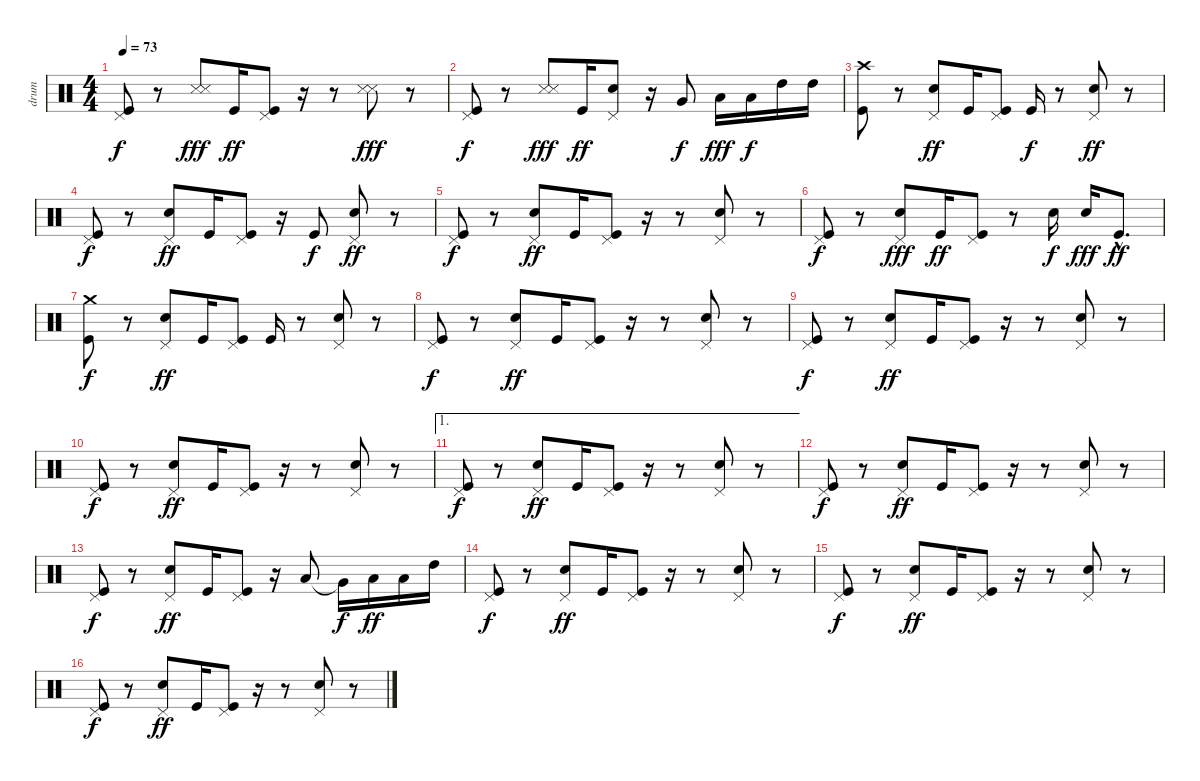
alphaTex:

\track ("drum" "drum") {instrument percussion}
\staff {score}
\articulation defaults
\ts (4 4)
\tempo 73
\clef neutral
\ks c
("Pedal Hi-Hat (hit)" "Kick (hit)").8{dy f} r.8 ("Snare (side stick) 3" "Snare (side stick) 3").8{dy fff} "Kick (hit)".16{dy ff} ("Pedal Hi-Hat (hit)" "Kick (hit)").8 r.16 r.8 ("Snare (side stick) 3" "Snare (side stick) 3").8{dy fff} r.8 |
("Pedal Hi-Hat (hit)" "Kick (hit)").8{dy f} r.8 ("Snare (side stick) 3" "Snare (side stick) 3").8{dy fff} "Kick (hit)".16{dy ff} ("Pedal Hi-Hat (hit)" "Snare (hit) 2").8 r.16 "Very Low Tom (hit)".8{dy f} "Low Tom (hit)".16{dy fff} "Low Tom (hit)".16{dy f} "High Tom (hit)".16 "High Tom (hit)".16 |
("Crash high (hit)" "Kick (hit)").8 r.8 ("Pedal Hi-Hat (hit)" "Snare (hit) 2").8{dy ff} "Kick (hit)".16 ("Pedal Hi-Hat (hit)" "Kick (hit)").8 "Kick (hit)".16{dy f} r.8 ("Pedal Hi-Hat (hit)" "Snare (hit) 2").8{dy ff} r.8 |
("Pedal Hi-Hat (hit)" "Kick (hit)").8{dy f} r.8 ("Pedal Hi-Hat (hit)" "Snare (hit) 2").8{dy ff} "Kick (hit)".16 ("Pedal Hi-Hat (hit)" "Kick (hit)").8 r.16 "Kick (hit)".8{dy f} ("Pedal Hi-Hat (hit)" "Snare (hit) 2").8{dy ff} r.8 |
("Pedal Hi-Hat (hit)" "Kick (hit)").8{dy f} r.8 ("Pedal Hi-Hat (hit)" "Snare (hit) 2").8{dy ff} "Kick (hit)".16 ("Pedal Hi-Hat (hit)" "Kick (hit)").8 r.16 r.8 ("Pedal Hi-Hat (hit)" "Snare (hit) 2").8 r.8 |
("Pedal Hi-Hat (hit)" "Kick (hit)").8{dy f} r.8 ("Pedal Hi-Hat (hit)" "Snare (hit) 2").8{dy fff} "Kick (hit)".16{dy ff} ("Pedal Hi-Hat (hit)" "Kick (hit)").8 r.8 "Snare (hit) 2".16{dy f} "Snare (hit) 2".16{dy fff} "Kick (hit)"{hac}.8{d dy ff} |
("Crash medium (hit)" "Kick (hit)").8{dy f} r.8 ("Pedal Hi-Hat (hit)" "Snare (hit) 2").8{dy ff} "Kick (hit)".16 ("Pedal Hi-Hat (hit)" "Kick (hit)").8 "Kick (hit)".16 r.8 ("Pedal Hi-Hat (hit)" "Snare (hit) 2").8 r.8 |
("Pedal Hi-Hat (hit)" "Kick (hit)").8{dy f} r.8 ("Pedal Hi-Hat (hit)" "Snare (hit) 2").8{dy ff} "Kick (hit)".16 ("Pedal Hi-Hat (hit)" "Kick (hit)").8 r.16 r.8 ("Pedal Hi-Hat (hit)" "Snare (hit) 2").8 r.8 |
("Pedal Hi-Hat (hit)" "Kick (hit)").8{dy f} r.8 ("Pedal Hi-Hat (hit)" "Snare (hit) 2").8{dy ff} "Kick (hit)".16 ("Pedal Hi-Hat (hit)" "Kick (hit)").8 r.16 r.8 ("Pedal Hi-Hat (hit)" "Snare (hit) 2").8 r.8 |
("Pedal Hi-Hat (hit)" "Kick (hit)").8{dy f} r.8 ("Pedal Hi-Hat (hit)" "Snare (hit) 2").8{dy ff} "Kick (hit)".16 ("Pedal Hi-Hat (hit)" "Kick (hit)").8 r.16 r.8 ("Pedal Hi-Hat (hit)" "Snare (hit) 2").8 r.8 |
\ae 1
("Pedal Hi-Hat (hit)" "Kick (hit)").8{dy f} r.8 ("Pedal Hi-Hat (hit)" "Snare (hit) 2").8{dy ff} "Kick (hit)".16 ("Pedal Hi-Hat (hit)" "Kick (hit)").8 r.16 r.8 ("Pedal Hi-Hat (hit)" "Snare (hit) 2").8 r.8 |
("Pedal Hi-Hat (hit)" "Kick (hit)").8{dy f} r.8 ("Pedal Hi-Hat (hit)" "Snare (hit) 2").8{dy ff} "Kick (hit)".16 ("Pedal Hi-Hat (hit)" "Kick (hit)").8 r.16 r.8 ("Pedal Hi-Hat (hit)" "Snare (hit) 2").8 r.8 |
("Pedal Hi-Hat (hit)" "Kick (hit)").8{dy f} r.8 ("Pedal Hi-Hat (hit)" "Snare (hit) 2").8{dy ff} "Kick (hit)".16 ("Pedal Hi-Hat (hit)" "Kick (hit)").8 r.16 "Low Tom (hit)".8 "Very Low Tom (hit)"{t}.16{dy f} "Low Tom (hit)".16{dy ff} "Low Tom (hit)".16 "High Tom (hit)".16 |
("Pedal Hi-Hat (hit)" "Kick (hit)").8{dy f} r.8 ("Pedal Hi-Hat (hit)" "Snare (hit) 2").8{dy ff} "Kick (hit)".16 ("Pedal Hi-Hat (hit)" "Kick (hit)").8 r.16 r.8 ("Pedal Hi-Hat (hit)" "Snare (hit) 2").8 r.8 |
("Pedal Hi-Hat (hit)" "Kick (hit)").8{dy f} r.8 ("Pedal Hi-Hat (hit)" "Snare (hit) 2").8{dy ff} "Kick (hit)".16 ("Pedal Hi-Hat (hit)" "Kick (hit)").8 r.16 r.8 ("Pedal Hi-Hat (hit)" "Snare (hit) 2").8 r.8 |
("Pedal Hi-Hat (hit)" "Kick (hit)").8{dy f} r.8 ("Pedal Hi-Hat (hit)" "Snare (hit) 2").8{dy ff} "Kick (hit)".16 ("Pedal Hi-Hat (hit)" "Kick (hit)").8 r.16 r.8 ("Pedal Hi-Hat (hit)" "Snare (hit) 2").8 r.8
